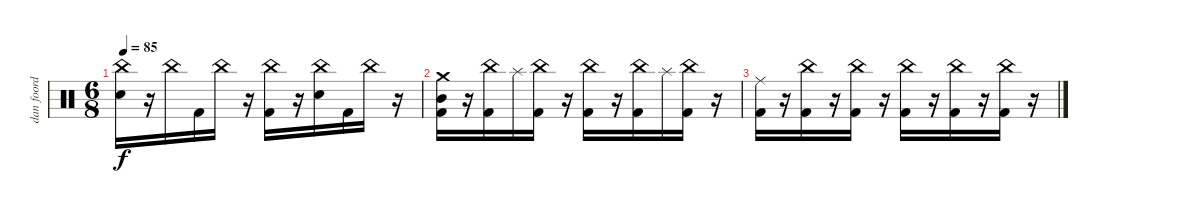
\track ("dan foord" "dan foord") {instrument percussion}
\staff {score}
\articulation defaults
\ts (6 8)
\tempo 85
\clef neutral
\ks c
("Snare (hit) 2" "China (hit)").16{dy f} r.16 "China (hit)".16 "Kick (hit) 2".16 "China (hit)".16 r.16 ("Kick (hit) 2" "China (hit)").16 r.16 ("Snare (hit) 2" "China (hit)").16 "Kick (hit) 2".16 "China (hit)".16 r.16 |
("Kick (hit) 2" "Mid Tom (hit)" "Crash medium (hit)").16 r.16 ("Kick (hit) 2" "China (hit)").16 "Splash (hit)".16 ("Kick (hit) 2" "China (hit)").16 r.16 ("Kick (hit) 2" "China (hit)").16 r.16 ("Kick (hit) 2" "China (hit)").16 "Splash (hit)".16 ("Kick (hit) 2" "China (hit)").16 r.16 |
("Kick (hit) 2" "Ride (middle)").16 r.16 ("Kick (hit) 2" "China (hit)").16 r.16 ("Kick (hit) 2" "China (hit)").16 r.16 ("Kick (hit) 2" "China (hit)").16 r.16 ("Kick (hit) 2" "China (hit)").16 r.16 ("Kick (hit) 2" "China (hit)").16 r.16
